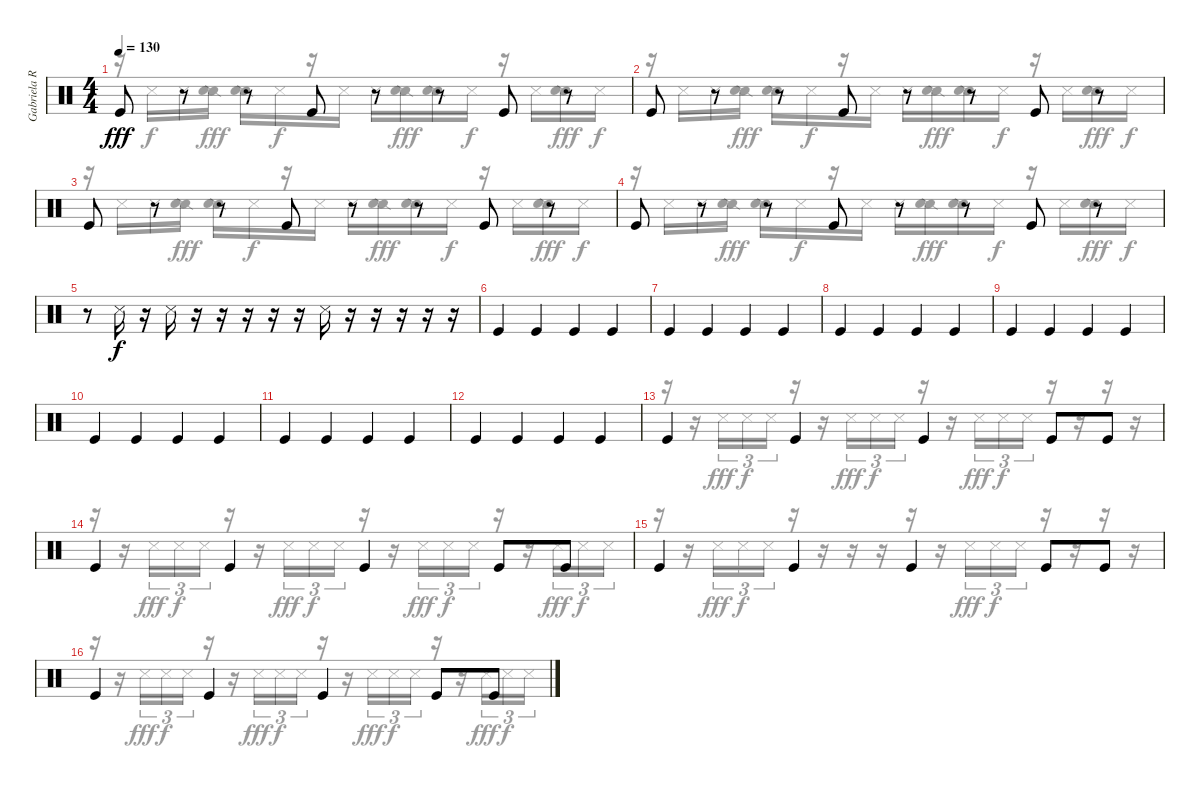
\track ("Gabriela Rythmics" "Gabriela R") {instrument percussion}
\staff {score}
\articulation defaults
\voice
\ts (4 4)
\tempo 130
\clef neutral
\ks c "Kick (hit)".8{dy fff}
r.8 r.8 "Kick (hit)".8 r.8 r.8 "Kick (hit)".8 r.8 |
"Kick (hit)".8 r.8 r.8 "Kick (hit)".8 r.8 r.8 "Kick (hit)".8 r.8 |
"Kick (hit)".8 r.8 r.8 "Kick (hit)".8 r.8 r.8 "Kick (hit)".8 r.8 |
"Kick (hit)".8 r.8 r.8 "Kick (hit)".8 r.8 r.8 "Kick (hit)".8 r.8 |
r.8 "Snare (side stick) 3".16{dy f} r.16 "Snare (side stick) 3".16 r.16 r.16 r.16 r.16 r.16 "Snare (side stick) 3".16 r.16 r.16 r.16 r.16 r.16 |
"Kick (hit)".4 "Kick (hit)".4 "Kick (hit)".4 "Kick (hit)".4 |
"Kick (hit)".4 "Kick (hit)".4 "Kick (hit)".4 "Kick (hit)".4 |
"Kick (hit)".4 "Kick (hit)".4 "Kick (hit)".4 "Kick (hit)".4 |
"Kick (hit)".4 "Kick (hit)".4 "Kick (hit)".4 "Kick (hit)".4 |
"Kick (hit)".4 "Kick (hit)".4 "Kick (hit)".4 "Kick (hit)".4 |
"Kick (hit)".4 "Kick (hit)".4 "Kick (hit)".4 "Kick (hit)".4 |
"Kick (hit)".4 "Kick (hit)".4 "Kick (hit)".4 "Kick (hit)".4 |
"Kick (hit)".4 "Kick (hit)".4 "Kick (hit)".4 "Kick (hit)".8 "Kick (hit)".8 |
"Kick (hit)".4 "Kick (hit)".4 "Kick (hit)".4 "Kick (hit)".8 "Kick (hit)".8 |
"Kick (hit)".4 "Kick (hit)".4 "Kick (hit)".4 "Kick (hit)".8 "Kick (hit)".8 |
"Kick (hit)".4 "Kick (hit)".4 "Kick (hit)".4 "Kick (hit)".8 "Kick (hit)".8
\voice
\clef neutral
\ottava regular
\simile none
\ks c
r.16{dy f} "Snare (side stick) 3".16 "Snare (side stick) 3".16 ("Snare (side stick) 2" "Electric Snare (hit)").16{dy fff} ("Snare (side stick) 2" "Electric Snare (hit)").16 "Snare (side stick) 3".16{dy f} r.16 "Snare (side stick) 3".16 "Snare (side stick) 3".16 ("Snare (side stick) 2" "Electric Snare (hit)").16{dy fff} ("Snare (side stick) 2" "Electric Snare (hit)").16 "Snare (side stick) 3".16{dy f} r.16 "Snare (side stick) 3".16 ("Snare (side stick) 2" "Electric Snare (hit)").16{dy fff} "Snare (side stick) 3".16{dy f} |
r.16 "Snare (side stick) 3".16 "Snare (side stick) 3".16 ("Snare (side stick) 2" "Electric Snare (hit)").16{dy fff} ("Snare (side stick) 2" "Electric Snare (hit)").16 "Snare (side stick) 3".16{dy f} r.16 "Snare (side stick) 3".16 "Snare (side stick) 3".16 ("Snare (side stick) 2" "Electric Snare (hit)").16{dy fff} ("Snare (side stick) 2" "Electric Snare (hit)").16 "Snare (side stick) 3".16{dy f} r.16 "Snare (side stick) 3".16 ("Snare (side stick) 2" "Electric Snare (hit)").16{dy fff} "Snare (side stick) 3".16{dy f} |
r.16 "Snare (side stick) 3".16 "Snare (side stick) 3".16 ("Snare (side stick) 2" "Electric Snare (hit)").16{dy fff} ("Snare (side stick) 2" "Electric Snare (hit)").16 "Snare (side stick) 3".16{dy f} r.16 "Snare (side stick) 3".16 "Snare (side stick) 3".16 ("Snare (side stick) 2" "Electric Snare (hit)").16{dy fff} ("Snare (side stick) 2" "Electric Snare (hit)").16 "Snare (side stick) 3".16{dy f} r.16 "Snare (side stick) 3".16 ("Snare (side stick) 2" "Electric Snare (hit)").16{dy fff} "Snare (side stick) 3".16{dy f} |
r.16 "Snare (side stick) 3".16 "Snare (side stick) 3".16 ("Snare (side stick) 2" "Electric Snare (hit)").16{dy fff} ("Snare (side stick) 2" "Electric Snare (hit)").16 "Snare (side stick) 3".16{dy f} r.16 "Snare (side stick) 3".16 "Snare (side stick) 3".16 ("Snare (side stick) 2" "Electric Snare (hit)").16{dy fff} ("Snare (side stick) 2" "Electric Snare (hit)").16 "Snare (side stick) 3".16{dy f} r.16 "Snare (side stick) 3".16 ("Snare (side stick) 2" "Electric Snare (hit)").16{dy fff} "Snare (side stick) 3".16{dy f} |
|
|
|
|
|
|
|
|
r.16 r.16 "Snare (side stick) 3".16{tu (3 2) dy fff} "Snare (side stick) 3".16{tu (3 2) dy f} "Snare (side stick) 3".16{tu (3 2)} r.16 r.16 "Snare (side stick) 3".16{tu (3 2) dy fff} "Snare (side stick) 3".16{tu (3 2) dy f} "Snare (side stick) 3".16{tu (3 2)} r.16 r.16 "Snare (side stick) 3".16{tu (3 2) dy fff} "Snare (side stick) 3".16{tu (3 2) dy f} "Snare (side stick) 3".16{tu (3 2)} r.16 r.16 r.16 r.16 |
r.16 r.16 "Snare (side stick) 3".16{tu (3 2) dy fff} "Snare (side stick) 3".16{tu (3 2) dy f} "Snare (side stick) 3".16{tu (3 2)} r.16 r.16 "Snare (side stick) 3".16{tu (3 2) dy fff} "Snare (side stick) 3".16{tu (3 2) dy f} "Snare (side stick) 3".16{tu (3 2)} r.16 r.16 "Snare (side stick) 3".16{tu (3 2) dy fff} "Snare (side stick) 3".16{tu (3 2) dy f} "Snare (side stick) 3".16{tu (3 2)} r.16 r.16 "Snare (side stick) 3".16{tu (3 2) dy fff} "Snare (side stick) 3".16{tu (3 2) dy f} "Snare (side stick) 3".16{tu (3 2)} |
r.16 r.16 "Snare (side stick) 3".16{tu (3 2) dy fff} "Snare (side stick) 3".16{tu (3 2) dy f} "Snare (side stick) 3".16{tu (3 2)} r.16 r.16 r.16 r.16 r.16 r.16 "Snare (side stick) 3".16{tu (3 2) dy fff} "Snare (side stick) 3".16{tu (3 2) dy f} "Snare (side stick) 3".16{tu (3 2)} r.16 r.16 r.16 r.16 |
r.16 r.16 "Snare (side stick) 3".16{tu (3 2) dy fff} "Snare (side stick) 3".16{tu (3 2) dy f} "Snare (side stick) 3".16{tu (3 2)} r.16 r.16 "Snare (side stick) 3".16{tu (3 2) dy fff} "Snare (side stick) 3".16{tu (3 2) dy f} "Snare (side stick) 3".16{tu (3 2)} r.16 r.16 "Snare (side stick) 3".16{tu (3 2) dy fff} "Snare (side stick) 3".16{tu (3 2) dy f} "Snare (side stick) 3".16{tu (3 2)} r.16 r.16 "Snare (side stick) 3".16{tu (3 2) dy fff} "Snare (side stick) 3".16{tu (3 2) dy f} "Snare (side stick) 3".16{tu (3 2)}
